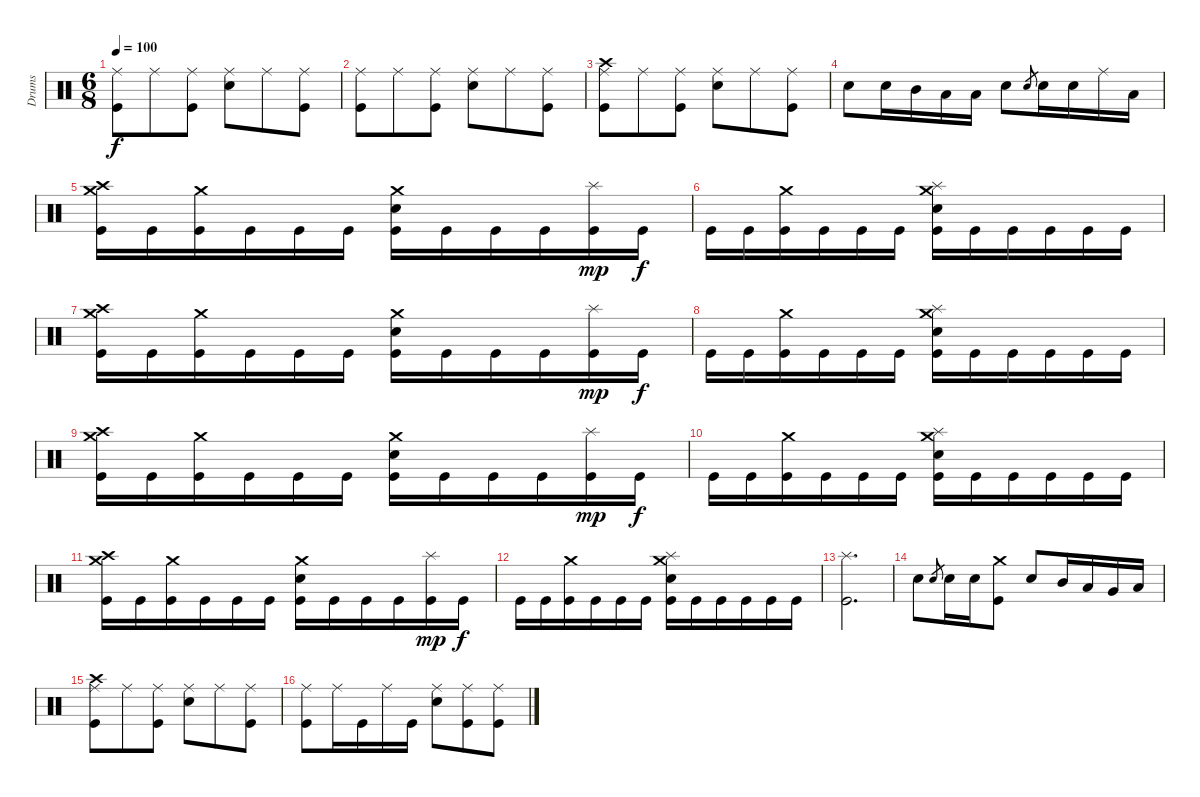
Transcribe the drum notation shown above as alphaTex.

\track ("Drums" "Drums") {instrument percussion}
\staff {score}
\articulation defaults
\ts (6 8)
\tempo 100
\clef neutral
\ks c
("Ride (middle)" "Kick (hit)").8{dy f} "Ride (middle)".8 ("Ride (middle)" "Kick (hit)").8 ("Ride (middle)" "Electric Snare (hit)").8 "Ride (middle)".8 ("Ride (middle)" "Kick (hit)").8 |
("Ride (middle)" "Kick (hit)").8 "Ride (middle)".8 ("Ride (middle)" "Kick (hit)").8 ("Ride (middle)" "Electric Snare (hit)").8 "Ride (middle)".8 ("Ride (middle)" "Kick (hit)").8 |
("Crash high (hit)" "Ride (middle)" "Kick (hit)").8 "Ride (middle)".8 ("Ride (middle)" "Kick (hit)").8 ("Ride (middle)" "Electric Snare (hit)").8 "Ride (middle)".8 ("Ride (middle)" "Kick (hit)").8 |
"Electric Snare (hit)".8 "Electric Snare (hit)".16 "Mid Tom (hit)".16 "Low Tom (hit)".16 "Low Tom (hit)".16 "Electric Snare (hit)".8 "Electric Snare (hit)".8{gr} "Electric Snare (hit)".16 "Electric Snare (hit)".16 "Ride (middle)".16 "Low Floor Tom (hit)".16 |
("Crash high (hit)" "Crash medium (hit)" "Kick (hit)").16 "Kick (hit)".16 ("Crash medium (hit)" "Kick (hit)").16 "Kick (hit)".16 "Kick (hit)".16 "Kick (hit)".16 ("Crash medium (hit)" "Electric Snare (hit)" "Kick (hit)").16 "Kick (hit)".16 "Kick (hit)".16 "Kick (hit)".16 ("Splash (hit)" "Kick (hit)").16{dy mp} "Kick (hit)".16{dy f} |
"Kick (hit)".16 "Kick (hit)".16 ("Crash medium (hit)" "Kick (hit)").16 "Kick (hit)".16 "Kick (hit)".16 "Kick (hit)".16 ("Splash (hit)" "Crash medium (hit)" "Electric Snare (hit)" "Kick (hit)").16 "Kick (hit)".16 "Kick (hit)".16 "Kick (hit)".16 "Kick (hit)".16 "Kick (hit)".16 |
("Crash high (hit)" "Crash medium (hit)" "Kick (hit)").16 "Kick (hit)".16 ("Crash medium (hit)" "Kick (hit)").16 "Kick (hit)".16 "Kick (hit)".16 "Kick (hit)".16 ("Crash medium (hit)" "Electric Snare (hit)" "Kick (hit)").16 "Kick (hit)".16 "Kick (hit)".16 "Kick (hit)".16 ("Splash (hit)" "Kick (hit)").16{dy mp} "Kick (hit)".16{dy f} |
"Kick (hit)".16 "Kick (hit)".16 ("Crash medium (hit)" "Kick (hit)").16 "Kick (hit)".16 "Kick (hit)".16 "Kick (hit)".16 ("Splash (hit)" "Crash medium (hit)" "Electric Snare (hit)" "Kick (hit)").16 "Kick (hit)".16 "Kick (hit)".16 "Kick (hit)".16 "Kick (hit)".16 "Kick (hit)".16 |
("Crash high (hit)" "Crash medium (hit)" "Kick (hit)").16 "Kick (hit)".16 ("Crash medium (hit)" "Kick (hit)").16 "Kick (hit)".16 "Kick (hit)".16 "Kick (hit)".16 ("Crash medium (hit)" "Electric Snare (hit)" "Kick (hit)").16 "Kick (hit)".16 "Kick (hit)".16 "Kick (hit)".16 ("Splash (hit)" "Kick (hit)").16{dy mp} "Kick (hit)".16{dy f} |
"Kick (hit)".16 "Kick (hit)".16 ("Crash medium (hit)" "Kick (hit)").16 "Kick (hit)".16 "Kick (hit)".16 "Kick (hit)".16 ("Splash (hit)" "Crash medium (hit)" "Electric Snare (hit)" "Kick (hit)").16 "Kick (hit)".16 "Kick (hit)".16 "Kick (hit)".16 "Kick (hit)".16 "Kick (hit)".16 |
("Crash high (hit)" "Crash medium (hit)" "Kick (hit)").16 "Kick (hit)".16 ("Crash medium (hit)" "Kick (hit)").16 "Kick (hit)".16 "Kick (hit)".16 "Kick (hit)".16 ("Crash medium (hit)" "Electric Snare (hit)" "Kick (hit)").16 "Kick (hit)".16 "Kick (hit)".16 "Kick (hit)".16 ("Splash (hit)" "Kick (hit)").16{dy mp} "Kick (hit)".16{dy f} |
"Kick (hit)".16 "Kick (hit)".16 ("Crash medium (hit)" "Kick (hit)").16 "Kick (hit)".16 "Kick (hit)".16 "Kick (hit)".16 ("Splash (hit)" "Crash medium (hit)" "Electric Snare (hit)" "Kick (hit)").16 "Kick (hit)".16 "Kick (hit)".16 "Kick (hit)".16 "Kick (hit)".16 "Kick (hit)".16 |
("Splash (hit)" "Kick (hit)").2{d} |
"Electric Snare (hit)".8 "Electric Snare (hit)".8{gr} "Electric Snare (hit)".16 "Electric Snare (hit)".16 ("Crash medium (hit)" "Kick (hit)").8 "Electric Snare (hit)".8 "Mid Tom (hit)".16 "Low Tom (hit)".16 "Very Low Tom (hit)".16 "Low Floor Tom (hit)".16 |
("Crash high (hit)" "Ride (middle)" "Kick (hit)").8 "Ride (middle)".8 ("Ride (middle)" "Kick (hit)").8 ("Ride (middle)" "Electric Snare (hit)").8 "Ride (middle)".8 ("Ride (middle)" "Kick (hit)").8 |
("Ride (middle)" "Kick (hit)").8 "Ride (middle)".16 "Kick (hit)".16 "Ride (middle)".16 "Kick (hit)".16 ("Ride (middle)" "Electric Snare (hit)").8 ("Ride (middle)" "Kick (hit)").8 ("Ride (middle)" "Kick (hit)").8
